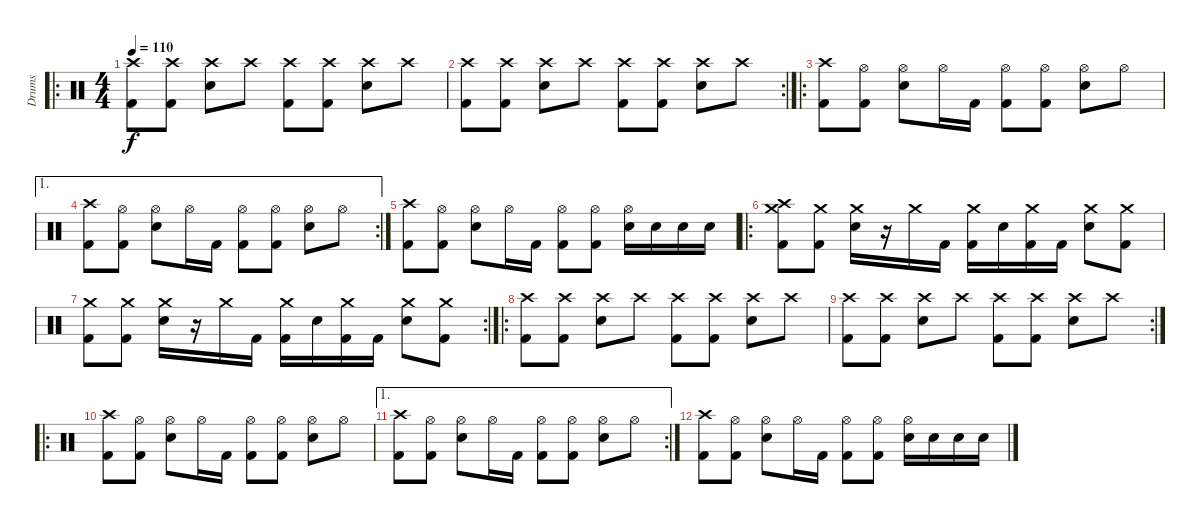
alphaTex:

\track ("Drums" "Drums") {instrument percussion}
\staff {score}
\articulation defaults
\ro
\ts (4 4)
\tempo 110
\clef neutral
\ks c
("Crash high (hit)" "Kick (hit) 2").8{dy f} ("Crash high (hit)" "Kick (hit) 2").8 ("Crash high (hit)" "Electric Snare (hit)").8 "Crash high (hit)".8 ("Crash high (hit)" "Kick (hit) 2").8 ("Crash high (hit)" "Kick (hit) 2").8 ("Crash high (hit)" "Electric Snare (hit)").8 "Crash high (hit)".8 |
\rc 2
("Crash high (hit)" "Kick (hit) 2").8 ("Crash high (hit)" "Kick (hit) 2").8 ("Crash high (hit)" "Electric Snare (hit)").8 "Crash high (hit)".8 ("Crash high (hit)" "Kick (hit) 2").8 ("Crash high (hit)" "Kick (hit) 2").8 ("Crash high (hit)" "Electric Snare (hit)").8 "Crash high (hit)".8 |
\ro
("Crash high (hit)" "Kick (hit) 2").8 ("Hi-Hat (open)" "Kick (hit) 2").8 ("Hi-Hat (open)" "Electric Snare (hit)").8 "Hi-Hat (open)".16 "Kick (hit) 2".16 ("Hi-Hat (open)" "Kick (hit) 2").8 ("Hi-Hat (open)" "Kick (hit) 2").8 ("Hi-Hat (open)" "Electric Snare (hit)").8 "Hi-Hat (open)".8 |
\ae 1
\rc 2
("Crash high (hit)" "Kick (hit) 2").8 ("Hi-Hat (open)" "Kick (hit) 2").8 ("Hi-Hat (open)" "Electric Snare (hit)").8 "Hi-Hat (open)".16 "Kick (hit) 2".16 ("Hi-Hat (open)" "Kick (hit) 2").8 ("Hi-Hat (open)" "Kick (hit) 2").8 ("Hi-Hat (open)" "Electric Snare (hit)").8 "Hi-Hat (open)".8 |
("Crash high (hit)" "Kick (hit) 2").8 ("Hi-Hat (open)" "Kick (hit) 2").8 ("Hi-Hat (open)" "Electric Snare (hit)").8 "Hi-Hat (open)".16 "Kick (hit) 2".16 ("Hi-Hat (open)" "Kick (hit) 2").8 ("Hi-Hat (open)" "Kick (hit) 2").8 ("Hi-Hat (open)" "Electric Snare (hit)").16 "Electric Snare (hit)".16 "Electric Snare (hit)".16 "Electric Snare (hit)".16 |
\ro
("Crash high (hit)" "Crash medium (hit)" "Kick (hit) 2").8 ("Crash medium (hit)" "Kick (hit) 2").8 ("Crash medium (hit)" "Electric Snare (hit)").16 r.16 "Crash medium (hit)".16 "Kick (hit) 2".16 ("Crash medium (hit)" "Kick (hit) 2").16 "Electric Snare (hit)".16 ("Crash medium (hit)" "Kick (hit) 2").16 "Kick (hit) 2".16 ("Crash medium (hit)" "Electric Snare (hit)").8 ("Crash medium (hit)" "Kick (hit) 2").8 |
\rc 2
("Crash medium (hit)" "Kick (hit) 2").8 ("Crash medium (hit)" "Kick (hit) 2").8 ("Crash medium (hit)" "Electric Snare (hit)").16 r.16 "Crash medium (hit)".16 "Kick (hit) 2".16 ("Crash medium (hit)" "Kick (hit) 2").16 "Electric Snare (hit)".16 ("Crash medium (hit)" "Kick (hit) 2").16 "Kick (hit) 2".16 ("Crash medium (hit)" "Electric Snare (hit)").8 ("Crash medium (hit)" "Kick (hit) 2").8 |
\ro
("Crash high (hit)" "Kick (hit) 2").8 ("Crash high (hit)" "Kick (hit) 2").8 ("Crash high (hit)" "Electric Snare (hit)").8 "Crash high (hit)".8 ("Crash high (hit)" "Kick (hit) 2").8 ("Crash high (hit)" "Kick (hit) 2").8 ("Crash high (hit)" "Electric Snare (hit)").8 "Crash high (hit)".8 |
\rc 2
("Crash high (hit)" "Kick (hit) 2").8 ("Crash high (hit)" "Kick (hit) 2").8 ("Crash high (hit)" "Electric Snare (hit)").8 "Crash high (hit)".8 ("Crash high (hit)" "Kick (hit) 2").8 ("Crash high (hit)" "Kick (hit) 2").8 ("Crash high (hit)" "Electric Snare (hit)").8 "Crash high (hit)".8 |
\ro
("Crash high (hit)" "Kick (hit) 2").8 ("Hi-Hat (open)" "Kick (hit) 2").8 ("Hi-Hat (open)" "Electric Snare (hit)").8 "Hi-Hat (open)".16 "Kick (hit) 2".16 ("Hi-Hat (open)" "Kick (hit) 2").8 ("Hi-Hat (open)" "Kick (hit) 2").8 ("Hi-Hat (open)" "Electric Snare (hit)").8 "Hi-Hat (open)".8 |
\ae 1
\rc 2
("Crash high (hit)" "Kick (hit) 2").8 ("Hi-Hat (open)" "Kick (hit) 2").8 ("Hi-Hat (open)" "Electric Snare (hit)").8 "Hi-Hat (open)".16 "Kick (hit) 2".16 ("Hi-Hat (open)" "Kick (hit) 2").8 ("Hi-Hat (open)" "Kick (hit) 2").8 ("Hi-Hat (open)" "Electric Snare (hit)").8 "Hi-Hat (open)".8 |
("Crash high (hit)" "Kick (hit) 2").8 ("Hi-Hat (open)" "Kick (hit) 2").8 ("Hi-Hat (open)" "Electric Snare (hit)").8 "Hi-Hat (open)".16 "Kick (hit) 2".16 ("Hi-Hat (open)" "Kick (hit) 2").8 ("Hi-Hat (open)" "Kick (hit) 2").8 ("Hi-Hat (open)" "Electric Snare (hit)").16 "Electric Snare (hit)".16 "Electric Snare (hit)".16 "Electric Snare (hit)".16
